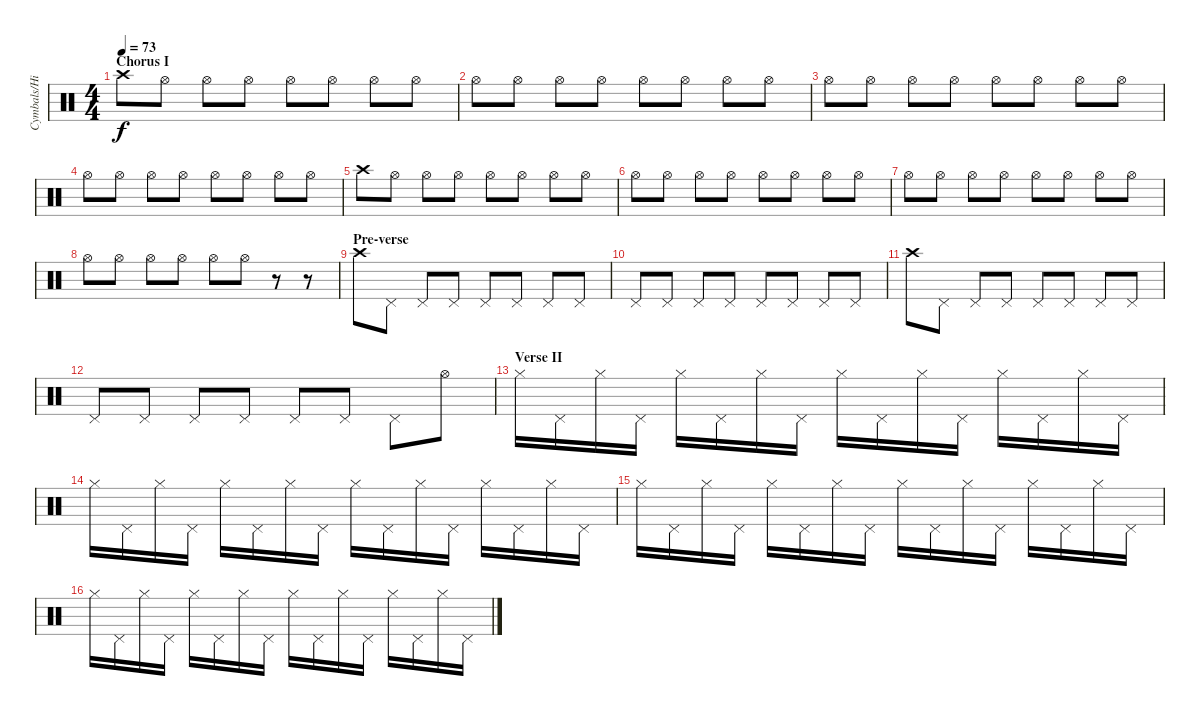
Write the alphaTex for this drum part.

\track ("Cymbals/Hi-hat" "Cymbals/Hi") {instrument percussion}
\staff {score}
\articulation defaults
\ts (4 4)
\section ("" "Chorus I")
\tempo 73
\clef neutral
\ks c "Crash high (hit)".8{dy f} "Hi-Hat (open)".8 "Hi-Hat (open)".8 "Hi-Hat (open)".8 "Hi-Hat (open)".8 "Hi-Hat (open)".8 "Hi-Hat (open)".8 "Hi-Hat (open)".8
|
"Hi-Hat (open)".8 "Hi-Hat (open)".8 "Hi-Hat (open)".8 "Hi-Hat (open)".8 "Hi-Hat (open)".8 "Hi-Hat (open)".8 "Hi-Hat (open)".8 "Hi-Hat (open)".8 |
"Hi-Hat (open)".8 "Hi-Hat (open)".8 "Hi-Hat (open)".8 "Hi-Hat (open)".8 "Hi-Hat (open)".8 "Hi-Hat (open)".8 "Hi-Hat (open)".8 "Hi-Hat (open)".8 |
"Hi-Hat (open)".8 "Hi-Hat (open)".8 "Hi-Hat (open)".8 "Hi-Hat (open)".8 "Hi-Hat (open)".8 "Hi-Hat (open)".8 "Hi-Hat (open)".8 "Hi-Hat (open)".8 |
"Crash high (hit)".8 "Hi-Hat (open)".8 "Hi-Hat (open)".8 "Hi-Hat (open)".8 "Hi-Hat (open)".8 "Hi-Hat (open)".8 "Hi-Hat (open)".8 "Hi-Hat (open)".8 |
"Hi-Hat (open)".8 "Hi-Hat (open)".8 "Hi-Hat (open)".8 "Hi-Hat (open)".8 "Hi-Hat (open)".8 "Hi-Hat (open)".8 "Hi-Hat (open)".8 "Hi-Hat (open)".8 |
"Hi-Hat (open)".8 "Hi-Hat (open)".8 "Hi-Hat (open)".8 "Hi-Hat (open)".8 "Hi-Hat (open)".8 "Hi-Hat (open)".8 "Hi-Hat (open)".8 "Hi-Hat (open)".8 |
"Hi-Hat (open)".8 "Hi-Hat (open)".8 "Hi-Hat (open)".8 "Hi-Hat (open)".8 "Hi-Hat (open)".8 "Hi-Hat (open)".8 r.8 r.8 |
\section ("" "Pre-verse")
"Crash high (hit)".8 "Pedal Hi-Hat (hit)".8 "Pedal Hi-Hat (hit)".8 "Pedal Hi-Hat (hit)".8 "Pedal Hi-Hat (hit)".8 "Pedal Hi-Hat (hit)".8 "Pedal Hi-Hat (hit)".8 "Pedal Hi-Hat (hit)".8 |
"Pedal Hi-Hat (hit)".8 "Pedal Hi-Hat (hit)".8 "Pedal Hi-Hat (hit)".8 "Pedal Hi-Hat (hit)".8 "Pedal Hi-Hat (hit)".8 "Pedal Hi-Hat (hit)".8 "Pedal Hi-Hat (hit)".8 "Pedal Hi-Hat (hit)".8 |
"Crash high (hit)".8 "Pedal Hi-Hat (hit)".8 "Pedal Hi-Hat (hit)".8 "Pedal Hi-Hat (hit)".8 "Pedal Hi-Hat (hit)".8 "Pedal Hi-Hat (hit)".8 "Pedal Hi-Hat (hit)".8 "Pedal Hi-Hat (hit)".8 |
"Pedal Hi-Hat (hit)".8 "Pedal Hi-Hat (hit)".8 "Pedal Hi-Hat (hit)".8 "Pedal Hi-Hat (hit)".8 "Pedal Hi-Hat (hit)".8 "Pedal Hi-Hat (hit)".8 "Pedal Hi-Hat (hit)".8 "Hi-Hat (open)".8 |
\section ("" "Verse II")
"Hi-Hat (closed)".16 "Pedal Hi-Hat (hit)".16 "Hi-Hat (closed)".16 "Pedal Hi-Hat (hit)".16 "Hi-Hat (closed)".16 "Pedal Hi-Hat (hit)".16 "Hi-Hat (closed)".16 "Pedal Hi-Hat (hit)".16 "Hi-Hat (closed)".16 "Pedal Hi-Hat (hit)".16 "Hi-Hat (closed)".16 "Pedal Hi-Hat (hit)".16 "Hi-Hat (closed)".16 "Pedal Hi-Hat (hit)".16 "Hi-Hat (closed)".16 "Pedal Hi-Hat (hit)".16 |
"Hi-Hat (closed)".16 "Pedal Hi-Hat (hit)".16 "Hi-Hat (closed)".16 "Pedal Hi-Hat (hit)".16 "Hi-Hat (closed)".16 "Pedal Hi-Hat (hit)".16 "Hi-Hat (closed)".16 "Pedal Hi-Hat (hit)".16 "Hi-Hat (closed)".16 "Pedal Hi-Hat (hit)".16 "Hi-Hat (closed)".16 "Pedal Hi-Hat (hit)".16 "Hi-Hat (closed)".16 "Pedal Hi-Hat (hit)".16 "Hi-Hat (closed)".16 "Pedal Hi-Hat (hit)".16 |
"Hi-Hat (closed)".16 "Pedal Hi-Hat (hit)".16 "Hi-Hat (closed)".16 "Pedal Hi-Hat (hit)".16 "Hi-Hat (closed)".16 "Pedal Hi-Hat (hit)".16 "Hi-Hat (closed)".16 "Pedal Hi-Hat (hit)".16 "Hi-Hat (closed)".16 "Pedal Hi-Hat (hit)".16 "Hi-Hat (closed)".16 "Pedal Hi-Hat (hit)".16 "Hi-Hat (closed)".16 "Pedal Hi-Hat (hit)".16 "Hi-Hat (closed)".16 "Pedal Hi-Hat (hit)".16 |
"Hi-Hat (closed)".16 "Pedal Hi-Hat (hit)".16 "Hi-Hat (closed)".16 "Pedal Hi-Hat (hit)".16 "Hi-Hat (closed)".16 "Pedal Hi-Hat (hit)".16 "Hi-Hat (closed)".16 "Pedal Hi-Hat (hit)".16 "Hi-Hat (closed)".16 "Pedal Hi-Hat (hit)".16 "Hi-Hat (closed)".16 "Pedal Hi-Hat (hit)".16 "Hi-Hat (closed)".16 "Pedal Hi-Hat (hit)".16 "Hi-Hat (closed)".16 "Pedal Hi-Hat (hit)".16
